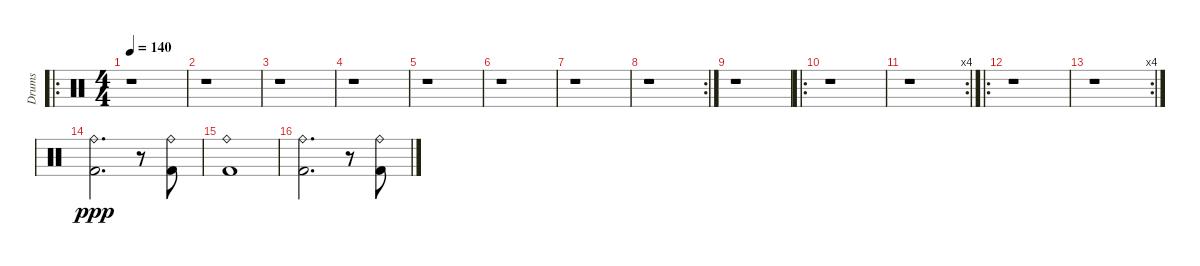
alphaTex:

\track ("Drums" "Drums") {instrument percussion}
\staff {score}
\articulation defaults
\ro
\ts (4 4)
\tempo 140
\clef neutral
\ks c
r.1{dy ppp} |
r.1 |
r.1 |
r.1 |
r.1 |
r.1 |
r.1 |
\rc 2
r.1 |
r.1 |
\ro
r.1 |
\rc 4
r.1 |
\ro
r.1 |
\rc 4
r.1 |
("Ride (bell)" "Kick (hit) 2").2{d} r.8 ("Ride (bell)" "Kick (hit) 2").8 |
("Ride (bell)" "Kick (hit) 2").1 |
("Ride (bell)" "Kick (hit) 2").2{d} r.8 ("Ride (bell)" "Kick (hit) 2").8
